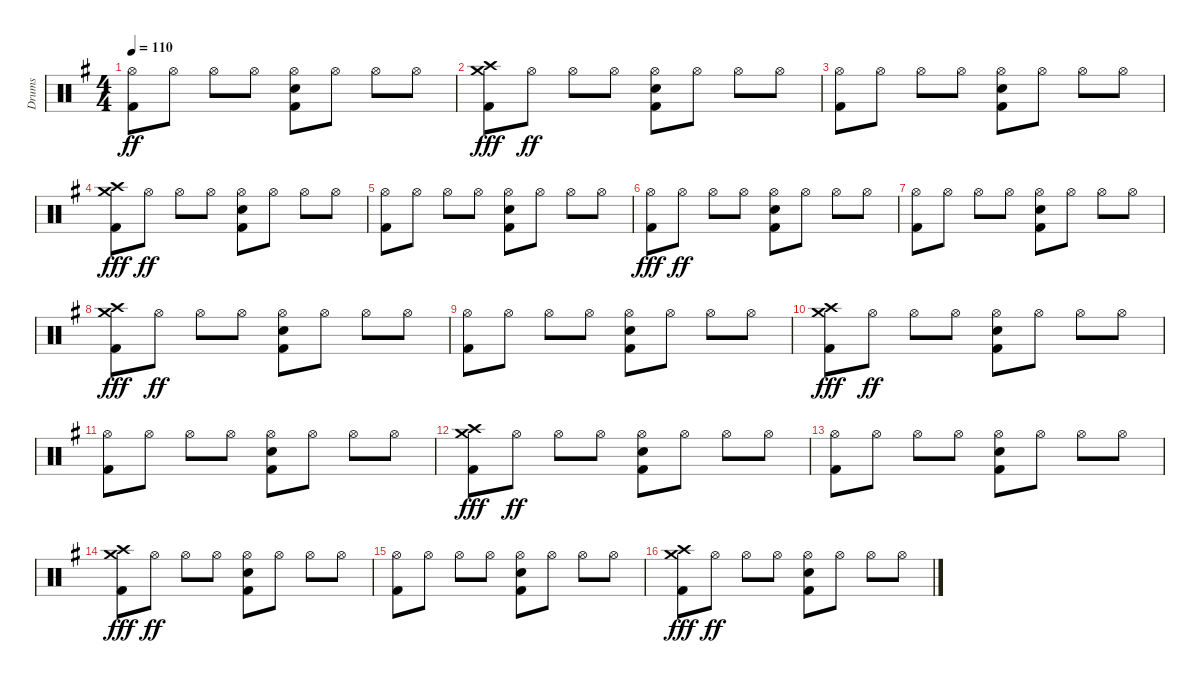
\track ("Drums" "Drums") {instrument percussion}
\staff {score}
\articulation defaults
\ts (4 4)
\tempo 110
\clef neutral
\ks eminor
("Kick (hit) 2" "Hi-Hat (open)").8{dy ff} "Hi-Hat (open)".8 "Hi-Hat (open)".8 "Hi-Hat (open)".8 ("Kick (hit) 2" "Electric Snare (hit)" "Hi-Hat (open)").8 "Hi-Hat (open)".8 "Hi-Hat (open)".8 "Hi-Hat (open)".8 |
("Kick (hit) 2" "Crash high (hit)" "Crash medium (hit)").8{dy fff} "Hi-Hat (open)".8{dy ff} "Hi-Hat (open)".8 "Hi-Hat (open)".8 ("Kick (hit) 2" "Electric Snare (hit)" "Hi-Hat (open)").8 "Hi-Hat (open)".8 "Hi-Hat (open)".8 "Hi-Hat (open)".8 |
("Kick (hit) 2" "Hi-Hat (open)").8 "Hi-Hat (open)".8 "Hi-Hat (open)".8 "Hi-Hat (open)".8 ("Kick (hit) 2" "Electric Snare (hit)" "Hi-Hat (open)").8 "Hi-Hat (open)".8 "Hi-Hat (open)".8 "Hi-Hat (open)".8 |
("Kick (hit) 2" "Crash high (hit)" "Crash medium (hit)").8{dy fff} "Hi-Hat (open)".8{dy ff} "Hi-Hat (open)".8 "Hi-Hat (open)".8 ("Kick (hit) 2" "Electric Snare (hit)" "Hi-Hat (open)").8 "Hi-Hat (open)".8 "Hi-Hat (open)".8 "Hi-Hat (open)".8 |
("Kick (hit) 2" "Hi-Hat (open)").8 "Hi-Hat (open)".8 "Hi-Hat (open)".8 "Hi-Hat (open)".8 ("Kick (hit) 2" "Electric Snare (hit)" "Hi-Hat (open)").8 "Hi-Hat (open)".8 "Hi-Hat (open)".8 "Hi-Hat (open)".8 |
("Kick (hit) 2" "Hi-Hat (open)").8{dy fff} "Hi-Hat (open)".8{dy ff} "Hi-Hat (open)".8 "Hi-Hat (open)".8 ("Kick (hit) 2" "Electric Snare (hit)" "Hi-Hat (open)").8 "Hi-Hat (open)".8 "Hi-Hat (open)".8 "Hi-Hat (open)".8 |
("Kick (hit) 2" "Hi-Hat (open)").8 "Hi-Hat (open)".8 "Hi-Hat (open)".8 "Hi-Hat (open)".8 ("Kick (hit) 2" "Electric Snare (hit)" "Hi-Hat (open)").8 "Hi-Hat (open)".8 "Hi-Hat (open)".8 "Hi-Hat (open)".8 |
("Kick (hit) 2" "Crash high (hit)" "Crash medium (hit)").8{dy fff} "Hi-Hat (open)".8{dy ff} "Hi-Hat (open)".8 "Hi-Hat (open)".8 ("Kick (hit) 2" "Electric Snare (hit)" "Hi-Hat (open)").8 "Hi-Hat (open)".8 "Hi-Hat (open)".8 "Hi-Hat (open)".8 |
("Kick (hit) 2" "Hi-Hat (open)").8 "Hi-Hat (open)".8 "Hi-Hat (open)".8 "Hi-Hat (open)".8 ("Kick (hit) 2" "Electric Snare (hit)" "Hi-Hat (open)").8 "Hi-Hat (open)".8 "Hi-Hat (open)".8 "Hi-Hat (open)".8 |
("Kick (hit) 2" "Crash high (hit)" "Crash medium (hit)").8{dy fff} "Hi-Hat (open)".8{dy ff} "Hi-Hat (open)".8 "Hi-Hat (open)".8 ("Kick (hit) 2" "Electric Snare (hit)" "Hi-Hat (open)").8 "Hi-Hat (open)".8 "Hi-Hat (open)".8 "Hi-Hat (open)".8 |
("Kick (hit) 2" "Hi-Hat (open)").8 "Hi-Hat (open)".8 "Hi-Hat (open)".8 "Hi-Hat (open)".8 ("Kick (hit) 2" "Electric Snare (hit)" "Hi-Hat (open)").8 "Hi-Hat (open)".8 "Hi-Hat (open)".8 "Hi-Hat (open)".8 |
("Kick (hit) 2" "Crash high (hit)" "Crash medium (hit)").8{dy fff} "Hi-Hat (open)".8{dy ff} "Hi-Hat (open)".8 "Hi-Hat (open)".8 ("Kick (hit) 2" "Electric Snare (hit)" "Hi-Hat (open)").8 "Hi-Hat (open)".8 "Hi-Hat (open)".8 "Hi-Hat (open)".8 |
("Kick (hit) 2" "Hi-Hat (open)").8 "Hi-Hat (open)".8 "Hi-Hat (open)".8 "Hi-Hat (open)".8 ("Kick (hit) 2" "Electric Snare (hit)" "Hi-Hat (open)").8 "Hi-Hat (open)".8 "Hi-Hat (open)".8 "Hi-Hat (open)".8 |
("Kick (hit) 2" "Crash high (hit)" "Crash medium (hit)").8{dy fff} "Hi-Hat (open)".8{dy ff} "Hi-Hat (open)".8 "Hi-Hat (open)".8 ("Kick (hit) 2" "Electric Snare (hit)" "Hi-Hat (open)").8 "Hi-Hat (open)".8 "Hi-Hat (open)".8 "Hi-Hat (open)".8 |
("Kick (hit) 2" "Hi-Hat (open)").8 "Hi-Hat (open)".8 "Hi-Hat (open)".8 "Hi-Hat (open)".8 ("Kick (hit) 2" "Electric Snare (hit)" "Hi-Hat (open)").8 "Hi-Hat (open)".8 "Hi-Hat (open)".8 "Hi-Hat (open)".8 |
("Kick (hit) 2" "Crash high (hit)" "Crash medium (hit)").8{dy fff} "Hi-Hat (open)".8{dy ff} "Hi-Hat (open)".8 "Hi-Hat (open)".8 ("Kick (hit) 2" "Electric Snare (hit)" "Hi-Hat (open)").8 "Hi-Hat (open)".8 "Hi-Hat (open)".8 "Hi-Hat (open)".8
